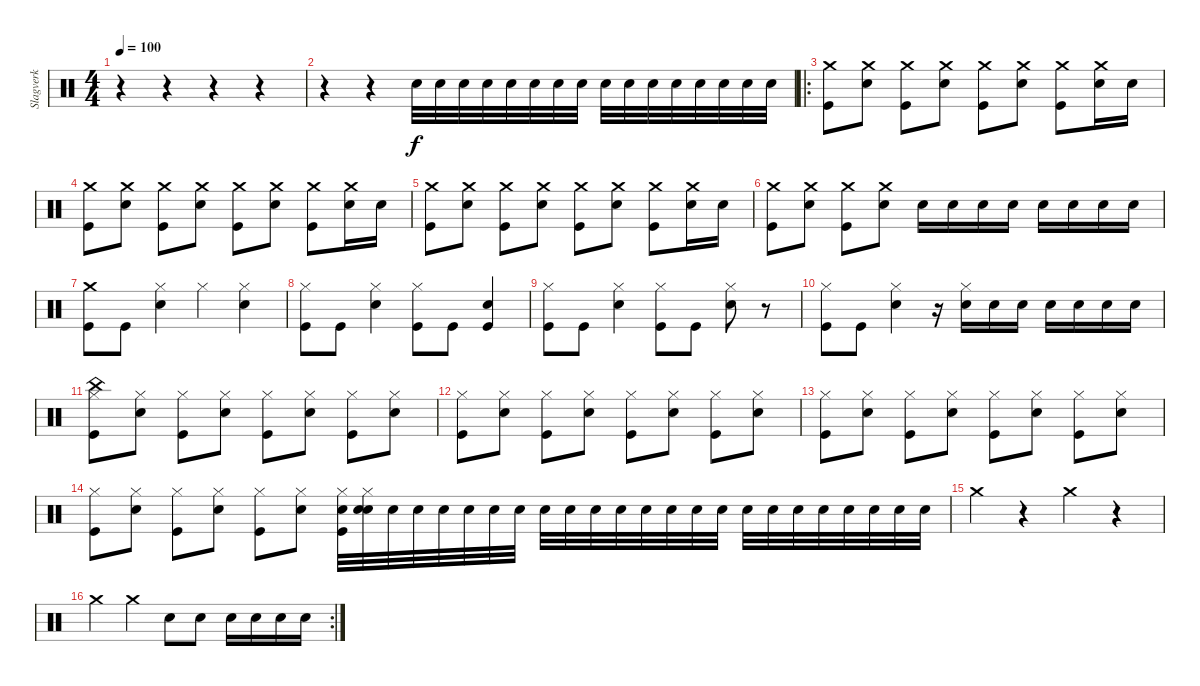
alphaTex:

\track ("Slagverk" "Slagverk") {instrument percussion}
\staff {score}
\articulation defaults
\ts (4 4)
\tempo 100
\clef neutral
\ks c
r.4{dy f} r.4 r.4 r.4 |
r.4 r.4 "Snare (hit) 2".32 "Snare (hit) 2".32 "Snare (hit) 2".32 "Snare (hit) 2".32 "Snare (hit) 2".32 "Snare (hit) 2".32 "Snare (hit) 2".32 "Snare (hit) 2".32 "Snare (hit) 2".32 "Snare (hit) 2".32 "Snare (hit) 2".32 "Snare (hit) 2".32 "Snare (hit) 2".32 "Snare (hit) 2".32 "Snare (hit) 2".32 "Snare (hit) 2".32 |
\ro
("Kick (hit)" "Crash medium (hit)").8 ("Snare (hit) 2" "Crash medium (hit)").8 ("Kick (hit)" "Crash medium (hit)").8 ("Snare (hit) 2" "Crash medium (hit)").8 ("Kick (hit)" "Crash medium (hit)").8 ("Snare (hit) 2" "Crash medium (hit)").8 ("Kick (hit)" "Crash medium (hit)").8 ("Snare (hit) 2" "Crash medium (hit)").16 "Snare (hit) 2".16 |
("Kick (hit)" "Crash medium (hit)").8 ("Snare (hit) 2" "Crash medium (hit)").8 ("Kick (hit)" "Crash medium (hit)").8 ("Snare (hit) 2" "Crash medium (hit)").8 ("Kick (hit)" "Crash medium (hit)").8 ("Snare (hit) 2" "Crash medium (hit)").8 ("Kick (hit)" "Crash medium (hit)").8 ("Snare (hit) 2" "Crash medium (hit)").16 "Snare (hit) 2".16 |
("Kick (hit)" "Crash medium (hit)").8 ("Snare (hit) 2" "Crash medium (hit)").8 ("Kick (hit)" "Crash medium (hit)").8 ("Snare (hit) 2" "Crash medium (hit)").8 ("Kick (hit)" "Crash medium (hit)").8 ("Snare (hit) 2" "Crash medium (hit)").8 ("Kick (hit)" "Crash medium (hit)").8 ("Snare (hit) 2" "Crash medium (hit)").16 "Snare (hit) 2".16 |
("Kick (hit)" "Crash medium (hit)").8 ("Snare (hit) 2" "Crash medium (hit)").8 ("Kick (hit)" "Crash medium (hit)").8 ("Snare (hit) 2" "Crash medium (hit)").8 "Snare (hit) 2".16 "Snare (hit) 2".16 "Snare (hit) 2".16 "Snare (hit) 2".16 "Snare (hit) 2".16 "Snare (hit) 2".16 "Snare (hit) 2".16 "Snare (hit) 2".16 |
("Kick (hit)" "Crash medium (hit)").8 "Kick (hit)".8 ("Snare (hit) 2" "Hi-Hat (closed)").4 "Hi-Hat (closed)".4 ("Snare (hit) 2" "Hi-Hat (closed)").4 |
("Hi-Hat (closed)" "Kick (hit)").8 "Kick (hit)".8 ("Snare (hit) 2" "Hi-Hat (closed)").4 ("Kick (hit)" "Hi-Hat (closed)").8 "Kick (hit)".8 ("Kick (hit)" "Snare (hit) 2").4 |
("Hi-Hat (closed)" "Kick (hit)").8 "Kick (hit)".8 ("Snare (hit) 2" "Hi-Hat (closed)").4 ("Kick (hit)" "Hi-Hat (closed)").8 "Kick (hit)".8 ("Snare (hit) 2" "Hi-Hat (closed)").8 r.8 |
("Hi-Hat (closed)" "Kick (hit)").8 "Kick (hit)".8 ("Snare (hit) 2" "Hi-Hat (closed)").4 r.16 ("Snare (hit) 2" "Hi-Hat (closed)").16 "Snare (hit) 2".16 "Snare (hit) 2".16 "Snare (hit) 2".16 "Snare (hit) 2".16 "Snare (hit) 2".16 "Snare (hit) 2".16 |
("China (hit)" "Hi-Hat (closed)" "Kick (hit)").8 ("Hi-Hat (closed)" "Snare (hit) 2").8 ("Hi-Hat (closed)" "Kick (hit)").8 ("Hi-Hat (closed)" "Snare (hit) 2").8 ("Hi-Hat (closed)" "Kick (hit)").8 ("Hi-Hat (closed)" "Snare (hit) 2").8 ("Hi-Hat (closed)" "Kick (hit)").8 ("Hi-Hat (closed)" "Snare (hit) 2").8 |
("Hi-Hat (closed)" "Kick (hit)").8 ("Hi-Hat (closed)" "Snare (hit) 2").8 ("Hi-Hat (closed)" "Kick (hit)").8 ("Hi-Hat (closed)" "Snare (hit) 2").8 ("Hi-Hat (closed)" "Kick (hit)").8 ("Hi-Hat (closed)" "Snare (hit) 2").8 ("Hi-Hat (closed)" "Kick (hit)").8 ("Hi-Hat (closed)" "Snare (hit) 2").8 |
("Hi-Hat (closed)" "Kick (hit)").8 ("Hi-Hat (closed)" "Snare (hit) 2").8 ("Hi-Hat (closed)" "Kick (hit)").8 ("Hi-Hat (closed)" "Snare (hit) 2").8 ("Hi-Hat (closed)" "Kick (hit)").8 ("Hi-Hat (closed)" "Snare (hit) 2").8 ("Hi-Hat (closed)" "Kick (hit)").8 ("Hi-Hat (closed)" "Snare (hit) 2").8 |
("Hi-Hat (closed)" "Kick (hit)").8 ("Hi-Hat (closed)" "Snare (hit) 2").8 ("Hi-Hat (closed)" "Kick (hit)").8 ("Hi-Hat (closed)" "Snare (hit) 2").8 ("Hi-Hat (closed)" "Kick (hit)").8 ("Hi-Hat (closed)" "Snare (hit) 2").8 ("Snare (hit) 2" "Hi-Hat (closed)" "Kick (hit)").32 ("Snare (hit) 2" "Hi-Hat (closed)" "Snare (hit) 2").32 "Snare (hit) 2".32 "Snare (hit) 2".32 "Snare (hit) 2".32 "Snare (hit) 2".32 "Snare (hit) 2".32 "Snare (hit) 2".32 "Snare (hit) 2".32 "Snare (hit) 2".32 "Snare (hit) 2".32 "Snare (hit) 2".32 "Snare (hit) 2".32 "Snare (hit) 2".32 "Snare (hit) 2".32 "Snare (hit) 2".32 "Snare (hit) 2".32 "Snare (hit) 2".32 "Snare (hit) 2".32 "Snare (hit) 2".32 "Snare (hit) 2".32 "Snare (hit) 2".32 "Snare (hit) 2".32 "Snare (hit) 2".32 |
"Crash medium (hit)".4 r.4 "Crash medium (hit)".4 r.4 |
\rc 2 "Crash medium (hit)".4 "Crash medium (hit)".4 "Snare (hit) 2".8 "Snare (hit) 2".8 "Snare (hit) 2".16 "Snare (hit) 2".16 "Snare (hit) 2".16 "Snare (hit) 2".16
